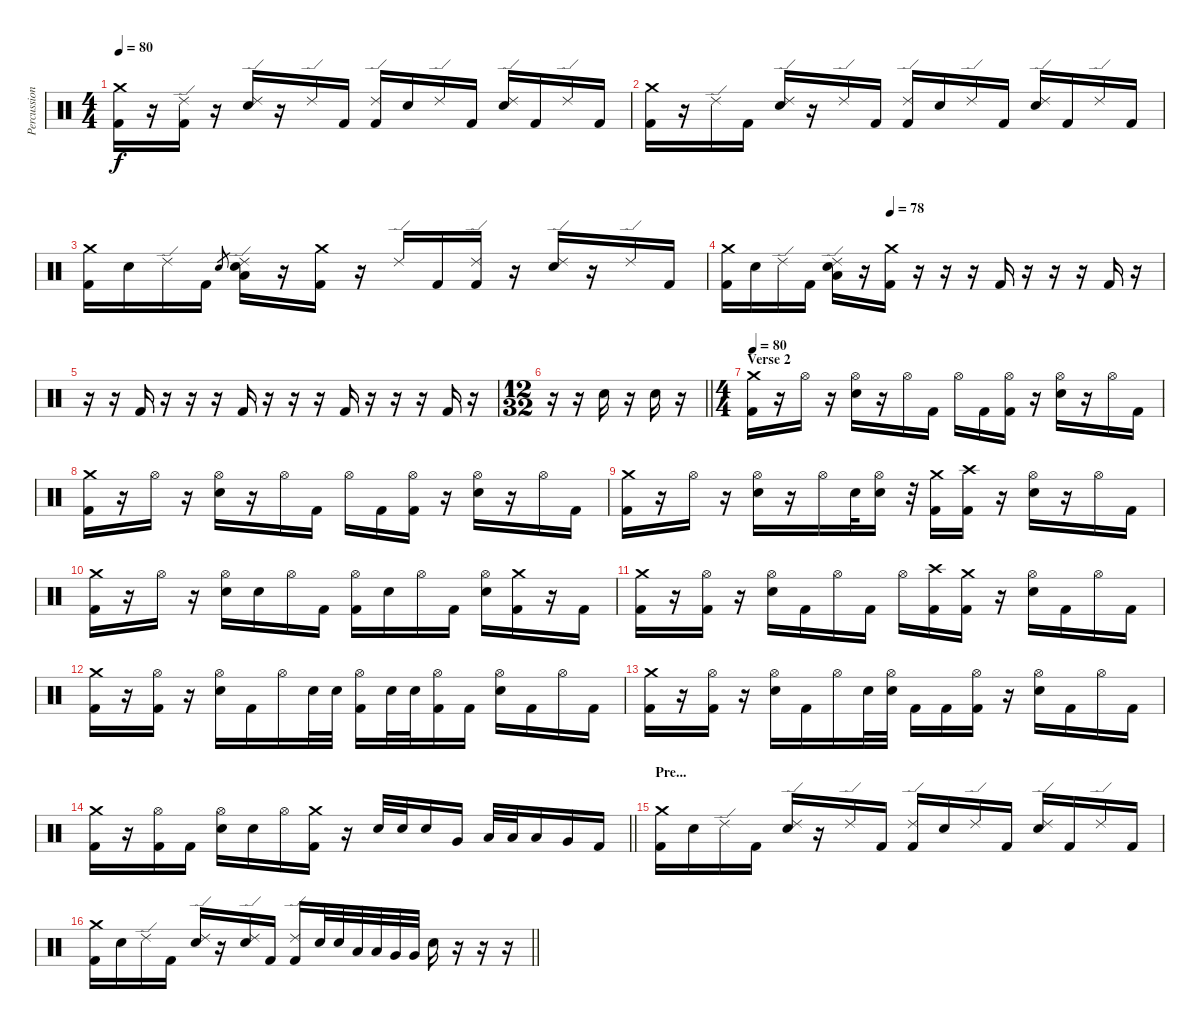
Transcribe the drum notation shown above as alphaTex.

\track ("Percussion (Phillips)" "Percussion") {instrument percussion}
\staff {score}
\articulation defaults
\ts (4 4)
\tempo 80
\clef neutral
\ks c
("Crash medium (hit)" "Kick (hit) 2").16{dy f} r.16 ("Ride (edge) 2" "Kick (hit) 2").16 r.16 ("Ride (edge) 2" "Electric Snare (hit)").16 r.16 "Ride (edge) 2".16 "Kick (hit) 2".16 ("Ride (edge) 2" "Kick (hit) 2").16 "Electric Snare (hit)".16 "Ride (edge) 2".16 "Kick (hit) 2".16 ("Ride (edge) 2" "Electric Snare (hit)").16 "Kick (hit) 2".16 "Ride (edge) 2".16 "Kick (hit) 2".16 |
("Crash medium (hit)" "Kick (hit) 2").16 r.16 "Ride (edge) 2".16 "Kick (hit) 2".16 ("Ride (edge) 2" "Electric Snare (hit)").16 r.16 "Ride (edge) 2".16 "Kick (hit) 2".16 ("Ride (edge) 2" "Kick (hit) 2").16 "Electric Snare (hit)".16 "Ride (edge) 2".16 "Kick (hit) 2".16 ("Ride (edge) 2" "Electric Snare (hit)").16 "Kick (hit) 2".16 "Ride (edge) 2".16 "Kick (hit) 2".16 |
("Crash medium (hit)" "Kick (hit) 2").16 "Electric Snare (hit)".16 "Ride (edge) 2".16 "Kick (hit) 2".16 "Electric Snare (hit)".8{gr} ("Low Tom (hit)" "Ride (edge) 2" "Electric Snare (hit)").16 r.16 ("Crash medium (hit)" "Kick (hit) 2").16 r.16 "Ride (edge) 2".16 "Kick (hit) 2".16 ("Ride (edge) 2" "Kick (hit) 2").16 r.16 ("Ride (edge) 2" "Electric Snare (hit)").16 r.16 "Ride (edge) 2".16 "Kick (hit) 2".16 |
\tempo (78 0.375)
("Crash medium (hit)" "Kick (hit) 2").16 "Electric Snare (hit)".16 "Ride (edge) 2".16 "Kick (hit) 2".16 ("Low Tom (hit)" "Ride (edge) 2" "Electric Snare (hit)").16 r.16 ("Crash medium (hit)" "Kick (hit) 2").16 r.16 r.16 r.16 "Kick (hit) 2".16 r.16 r.16 r.16 "Kick (hit) 2".16 r.16 |
r.16 r.16 "Kick (hit) 2".16 r.16 r.16 r.16 "Kick (hit) 2".16 r.16 r.16 r.16 "Kick (hit) 2".16 r.16 r.16 r.16 "Kick (hit) 2".16 r.16 |
\ts (12 32)
\barLineRight lightlight
r.16 r.16 "Electric Snare (hit)".16 r.16 "Electric Snare (hit)".16 r.16 |
\ts (4 4)
\section ("" "Verse 2")
\tempo 80
("Crash medium (hit)" "Kick (hit) 2").16 r.16 "Hi-Hat (open)".16 r.16 ("Hi-Hat (open)" "Electric Snare (hit)").16 r.16 "Hi-Hat (open)".16 "Kick (hit) 2".16 "Hi-Hat (open)".16 "Kick (hit) 2".16 ("Hi-Hat (open)" "Kick (hit) 2").16 r.16 ("Hi-Hat (open)" "Electric Snare (hit)").16 r.16 "Hi-Hat (open)".16 "Kick (hit) 2".16 |
("Crash medium (hit)" "Kick (hit) 2").16 r.16 "Hi-Hat (open)".16 r.16 ("Hi-Hat (open)" "Electric Snare (hit)").16 r.16 "Hi-Hat (open)".16 "Kick (hit) 2".16 "Hi-Hat (open)".16 "Kick (hit) 2".16 ("Hi-Hat (open)" "Kick (hit) 2").16 r.16 ("Hi-Hat (open)" "Electric Snare (hit)").16 r.16 "Hi-Hat (open)".16 "Kick (hit) 2".16 |
("Crash medium (hit)" "Kick (hit) 2").16 r.16 "Hi-Hat (open)".16 r.16 ("Hi-Hat (open)" "Electric Snare (hit)").16 r.16 "Hi-Hat (open)".16 "Electric Snare (hit)".32 ("Hi-Hat (open)" "Electric Snare (hit)").16 r.32 ("Crash medium (hit)" "Kick (hit) 2").16 ("Crash high (hit)" "Kick (hit) 2").16 r.16 ("Hi-Hat (open)" "Electric Snare (hit)").16 r.16 "Hi-Hat (open)".16 "Kick (hit) 2".16 |
("Crash medium (hit)" "Kick (hit) 2").16 r.16 "Hi-Hat (open)".16 r.16 ("Hi-Hat (open)" "Electric Snare (hit)").16 "Electric Snare (hit)".16 "Hi-Hat (open)".16 "Kick (hit) 2".16 ("Hi-Hat (open)" "Kick (hit) 2").16 "Electric Snare (hit)".16 "Hi-Hat (open)".16 "Kick (hit) 2".16 ("Hi-Hat (open)" "Electric Snare (hit)").16 ("Crash medium (hit)" "Kick (hit) 2").16 r.16 "Kick (hit) 2".16 |
("Crash medium (hit)" "Kick (hit) 2").16 r.16 ("Hi-Hat (open)" "Kick (hit) 2").16 r.16 ("Hi-Hat (open)" "Electric Snare (hit)").16 "Kick (hit) 2".16 "Hi-Hat (open)".16 "Kick (hit) 2".16 "Hi-Hat (open)".16 ("Crash high (hit)" "Kick (hit) 2").16 ("Crash medium (hit)" "Kick (hit) 2").16 r.16 ("Hi-Hat (open)" "Electric Snare (hit)").16 "Kick (hit) 2".16 "Hi-Hat (open)".16 "Kick (hit) 2".16 |
("Crash medium (hit)" "Kick (hit) 2").16 r.16 ("Hi-Hat (open)" "Kick (hit) 2").16 r.16 ("Hi-Hat (open)" "Electric Snare (hit)").16 "Kick (hit) 2".16 "Hi-Hat (open)".16 "Electric Snare (hit)".32 "Electric Snare (hit)".32 ("Hi-Hat (open)" "Kick (hit) 2").16 "Electric Snare (hit)".32 "Electric Snare (hit)".32 ("Hi-Hat (open)" "Kick (hit) 2").16 "Kick (hit) 2".16 ("Hi-Hat (open)" "Electric Snare (hit)").16 "Kick (hit) 2".16 "Hi-Hat (open)".16 "Kick (hit) 2".16 |
("Crash medium (hit)" "Kick (hit) 2").16 r.16 ("Hi-Hat (open)" "Kick (hit) 2").16 r.16 ("Hi-Hat (open)" "Electric Snare (hit)").16 "Kick (hit) 2".16 "Hi-Hat (open)".16 "Electric Snare (hit)".32 ("Hi-Hat (open)" "Electric Snare (hit)").32 "Kick (hit) 2".16 "Kick (hit) 2".16 ("Hi-Hat (open)" "Kick (hit) 2").16 r.16 ("Hi-Hat (open)" "Electric Snare (hit)").16 "Kick (hit) 2".16 "Hi-Hat (open)".16 "Kick (hit) 2".16 |
\barLineRight lightlight
("Crash medium (hit)" "Kick (hit) 2").16 r.16 ("Hi-Hat (open)" "Kick (hit) 2").16 "Kick (hit) 2".16 ("Hi-Hat (open)" "Electric Snare (hit)").16 "Electric Snare (hit)".16 "Hi-Hat (open)".16 ("Crash medium (hit)" "Kick (hit) 2").16 r.16 "Electric Snare (hit)".32 "Electric Snare (hit)".32 "Electric Snare (hit)".16 "Very Low Tom (hit)".16 "Low Tom (hit)".32 "Low Tom (hit)".32 "Low Tom (hit)".16 "Very Low Tom (hit)".16 "Kick (hit) 2".16 |
\section ("" "Pre...")
("Crash medium (hit)" "Kick (hit) 2").16 "Electric Snare (hit)".16 "Ride (edge) 2".16 "Kick (hit) 2".16 ("Ride (edge) 2" "Electric Snare (hit)").16 r.16 "Ride (edge) 2".16 "Kick (hit) 2".16 ("Ride (edge) 2" "Kick (hit) 2").16 "Electric Snare (hit)".16 "Ride (edge) 2".16 "Kick (hit) 2".16 ("Ride (edge) 2" "Electric Snare (hit)").16 "Kick (hit) 2".16 "Ride (edge) 2".16 "Kick (hit) 2".16 |
\barLineRight lightlight
("Crash medium (hit)" "Kick (hit) 2").16 "Electric Snare (hit)".16 "Ride (edge) 2".16 "Kick (hit) 2".16 ("Ride (edge) 2" "Electric Snare (hit)").16 r.16 ("Ride (edge) 2" "Electric Snare (hit)").16 "Kick (hit) 2".16 ("Ride (edge) 2" "Kick (hit) 2").16 "Electric Snare (hit)".32 "Electric Snare (hit)".32 "Low Tom (hit)".32 "Low Tom (hit)".32 "Very Low Tom (hit)".32 "Very Low Tom (hit)".32 "Electric Snare (hit)".16 r.16 r.16 r.16
